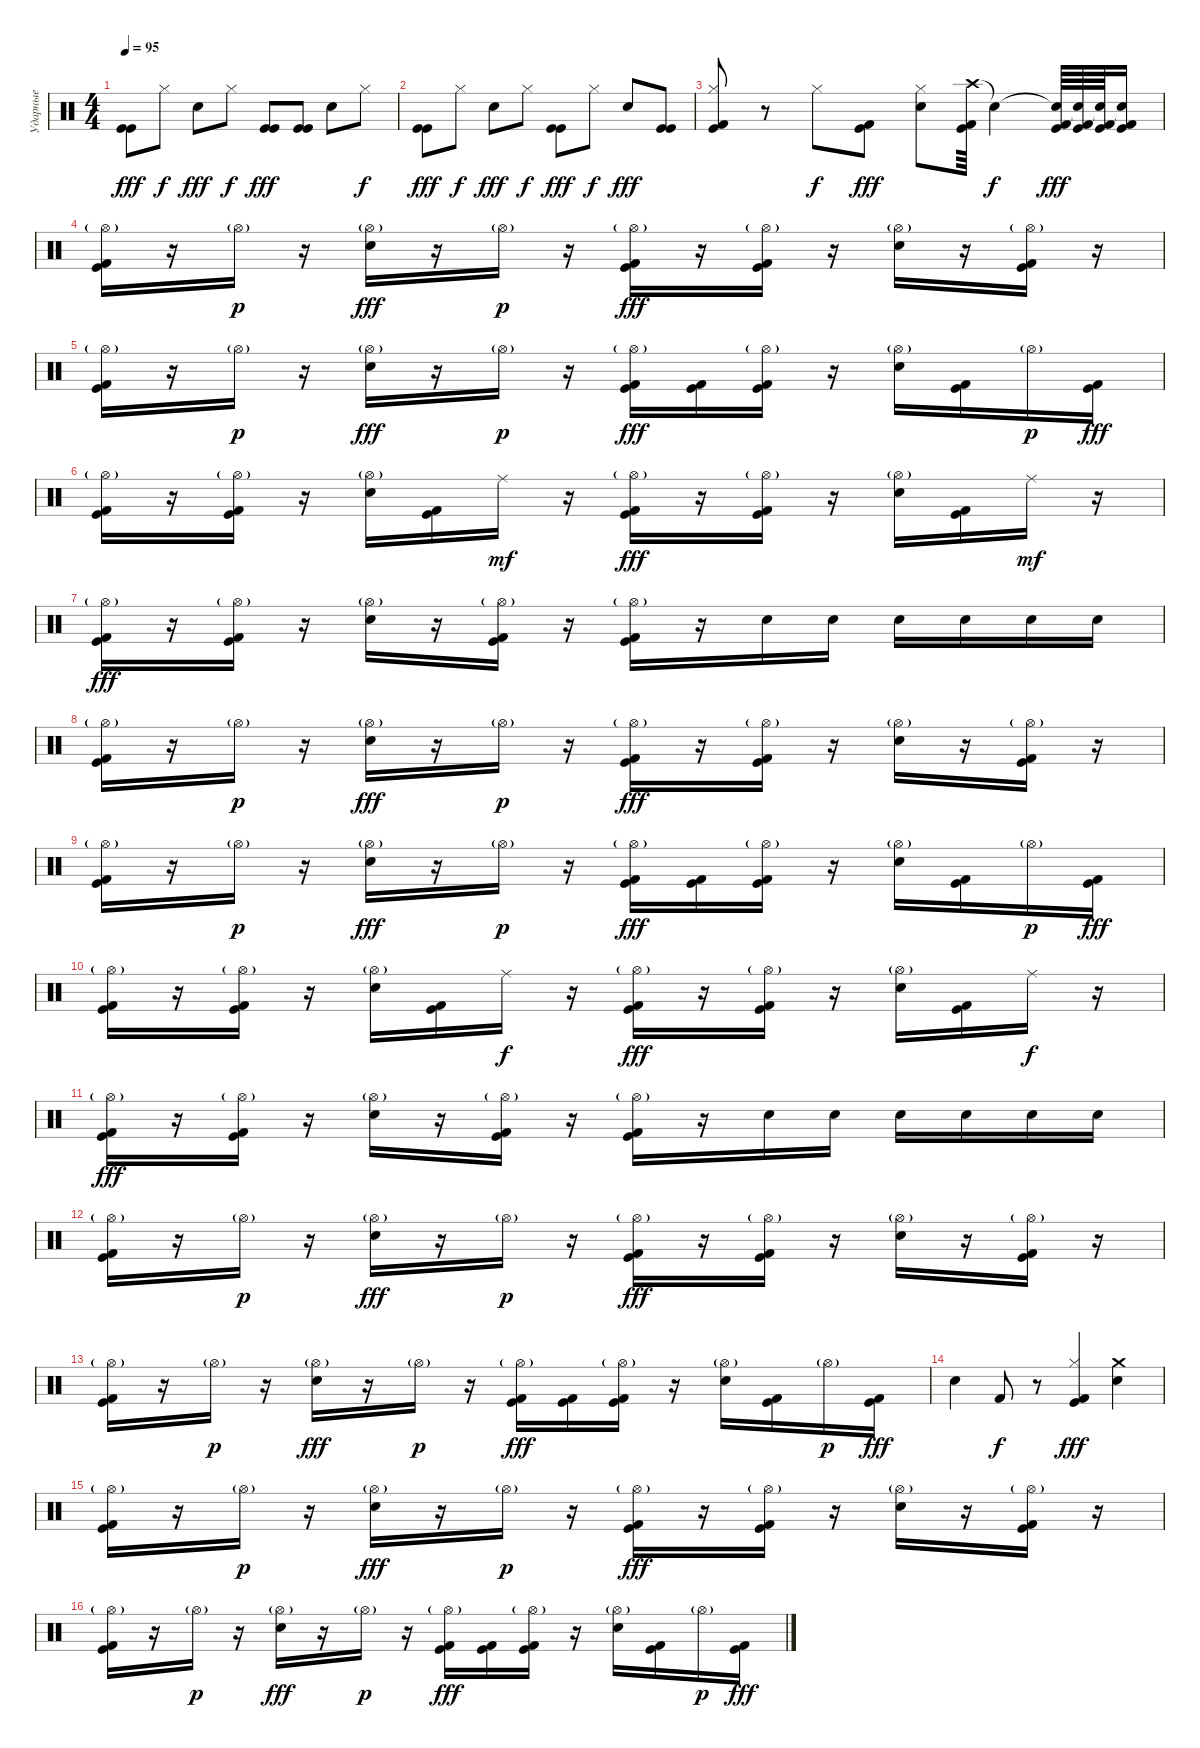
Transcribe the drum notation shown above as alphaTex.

\track ("Ударные" "Ударные") {instrument percussion}
\staff {score}
\articulation defaults
\ts (4 4)
\tempo 95
\clef neutral
\ks c
("Kick (hit)" "Kick (hit)").8{dy fff} "Hi-Hat (closed)".8{dy f} "Snare (hit) 2".8{dy fff} "Hi-Hat (closed)".8{dy f} ("Kick (hit)" "Kick (hit)").8{dy fff} ("Kick (hit)" "Kick (hit)").8 "Snare (hit) 2".8 "Hi-Hat (closed)".8{dy f} |
("Kick (hit)" "Kick (hit)").8{dy fff} "Hi-Hat (closed)".8{dy f} "Snare (hit) 2".8{dy fff} "Hi-Hat (closed)".8{dy f} ("Kick (hit)" "Kick (hit)").8{dy fff} "Hi-Hat (closed)".8{dy f} "Snare (hit) 2".8{dy fff} ("Kick (hit)" "Kick (hit)").8 |
("Hi-Hat (closed)" "Kick (hit)" "Kick (hit) 2").8 r.8 "Hi-Hat (closed)".8{dy f} ("Kick (hit)" "Kick (hit) 2").8{dy fff} ("Hi-Hat (closed)" "Snare (hit) 2").8 ("Crash high (hit)" "Kick (hit)" "Kick (hit) 2").64 "Snare (hit)"{t}.4{dy f} ("Snare (hit)"{t} "Kick (hit)" "Kick (hit) 2").64{dy fff} ("Snare (hit)"{t} "Kick (hit)" "Kick (hit) 2").64 ("Snare (hit)"{t} "Kick (hit)" "Kick (hit) 2").64 ("Snare (hit)"{t} "Kick (hit)" "Kick (hit) 2").16 |
("Hi-Hat (open)"{g} "Kick (hit) 2" "Kick (hit)").16 r.16 "Hi-Hat (open)"{g}.16{dy p} r.16 ("Hi-Hat (open)"{g} "Electric Snare (hit)").16{dy fff} r.16 "Hi-Hat (open)"{g}.16{dy p} r.16 ("Hi-Hat (open)"{g} "Kick (hit) 2" "Kick (hit)").16{dy fff} r.16 ("Hi-Hat (open)"{g} "Kick (hit) 2" "Kick (hit)").16 r.16 ("Hi-Hat (open)"{g} "Electric Snare (hit)").16 r.16 ("Hi-Hat (open)"{g} "Kick (hit) 2" "Kick (hit)").16 r.16 |
("Hi-Hat (open)"{g} "Kick (hit) 2" "Kick (hit)").16 r.16 "Hi-Hat (open)"{g}.16{dy p} r.16 ("Hi-Hat (open)"{g} "Electric Snare (hit)").16{dy fff} r.16 "Hi-Hat (open)"{g}.16{dy p} r.16 ("Hi-Hat (open)"{g} "Kick (hit) 2" "Kick (hit)").16{dy fff} ("Kick (hit) 2" "Kick (hit)").16 ("Hi-Hat (open)"{g} "Kick (hit) 2" "Kick (hit)").16 r.16 ("Hi-Hat (open)"{g} "Electric Snare (hit)").16 ("Kick (hit) 2" "Kick (hit)").16 "Hi-Hat (open)"{g}.16{dy p} ("Kick (hit) 2" "Kick (hit)").16{dy fff} |
("Hi-Hat (open)"{g} "Kick (hit) 2" "Kick (hit)").16 r.16 ("Hi-Hat (open)"{g} "Kick (hit) 2" "Kick (hit)").16 r.16 ("Hi-Hat (open)"{g} "Electric Snare (hit)").16 ("Kick (hit) 2" "Kick (hit)").16 "Ride (middle)".16{dy mf} r.16 ("Hi-Hat (open)"{g} "Kick (hit) 2" "Kick (hit)").16{dy fff} r.16 ("Hi-Hat (open)"{g} "Kick (hit) 2" "Kick (hit)").16 r.16 ("Hi-Hat (open)"{g} "Electric Snare (hit)").16 ("Kick (hit) 2" "Kick (hit)").16 "Ride (middle)".16{dy mf} r.16 |
("Hi-Hat (open)"{g} "Kick (hit) 2" "Kick (hit)").16{dy fff} r.16 ("Hi-Hat (open)"{g} "Kick (hit) 2" "Kick (hit)").16 r.16 ("Hi-Hat (open)"{g} "Electric Snare (hit)").16 r.16 ("Hi-Hat (open)"{g} "Kick (hit) 2" "Kick (hit)").16 r.16 ("Hi-Hat (open)"{g} "Kick (hit) 2" "Kick (hit)").16 r.16 "Electric Snare (hit)".16 "Electric Snare (hit)".16 "Electric Snare (hit)".16 "Electric Snare (hit)".16 "Electric Snare (hit)".16 "Electric Snare (hit)".16 |
("Hi-Hat (open)"{g} "Kick (hit) 2" "Kick (hit)").16 r.16 "Hi-Hat (open)"{g}.16{dy p} r.16 ("Hi-Hat (open)"{g} "Electric Snare (hit)").16{dy fff} r.16 "Hi-Hat (open)"{g}.16{dy p} r.16 ("Hi-Hat (open)"{g} "Kick (hit) 2" "Kick (hit)").16{dy fff} r.16 ("Hi-Hat (open)"{g} "Kick (hit) 2" "Kick (hit)").16 r.16 ("Hi-Hat (open)"{g} "Electric Snare (hit)").16 r.16 ("Hi-Hat (open)"{g} "Kick (hit) 2" "Kick (hit)").16 r.16 |
("Hi-Hat (open)"{g} "Kick (hit) 2" "Kick (hit)").16 r.16 "Hi-Hat (open)"{g}.16{dy p} r.16 ("Hi-Hat (open)"{g} "Electric Snare (hit)").16{dy fff} r.16 "Hi-Hat (open)"{g}.16{dy p} r.16 ("Hi-Hat (open)"{g} "Kick (hit) 2" "Kick (hit)").16{dy fff} ("Kick (hit) 2" "Kick (hit)").16 ("Hi-Hat (open)"{g} "Kick (hit) 2" "Kick (hit)").16 r.16 ("Hi-Hat (open)"{g} "Electric Snare (hit)").16 ("Kick (hit) 2" "Kick (hit)").16 "Hi-Hat (open)"{g}.16{dy p} ("Kick (hit) 2" "Kick (hit)").16{dy fff} |
("Hi-Hat (open)"{g} "Kick (hit) 2" "Kick (hit)").16 r.16 ("Hi-Hat (open)"{g} "Kick (hit) 2" "Kick (hit)").16 r.16 ("Hi-Hat (open)"{g} "Electric Snare (hit)").16 ("Kick (hit) 2" "Kick (hit)").16 "Ride (middle)".16{dy f} r.16 ("Hi-Hat (open)"{g} "Kick (hit) 2" "Kick (hit)").16{dy fff} r.16 ("Hi-Hat (open)"{g} "Kick (hit) 2" "Kick (hit)").16 r.16 ("Hi-Hat (open)"{g} "Electric Snare (hit)").16 ("Kick (hit) 2" "Kick (hit)").16 "Ride (middle)".16{dy f} r.16 |
("Hi-Hat (open)"{g} "Kick (hit) 2" "Kick (hit)").16{dy fff} r.16 ("Hi-Hat (open)"{g} "Kick (hit) 2" "Kick (hit)").16 r.16 ("Hi-Hat (open)"{g} "Electric Snare (hit)").16 r.16 ("Hi-Hat (open)"{g} "Kick (hit) 2" "Kick (hit)").16 r.16 ("Hi-Hat (open)"{g} "Kick (hit) 2" "Kick (hit)").16 r.16 "Electric Snare (hit)".16 "Electric Snare (hit)".16 "Electric Snare (hit)".16 "Electric Snare (hit)".16 "Electric Snare (hit)".16 "Electric Snare (hit)".16 |
("Hi-Hat (open)"{g} "Kick (hit) 2" "Kick (hit)").16 r.16 "Hi-Hat (open)"{g}.16{dy p} r.16 ("Hi-Hat (open)"{g} "Electric Snare (hit)").16{dy fff} r.16 "Hi-Hat (open)"{g}.16{dy p} r.16 ("Hi-Hat (open)"{g} "Kick (hit) 2" "Kick (hit)").16{dy fff} r.16 ("Hi-Hat (open)"{g} "Kick (hit) 2" "Kick (hit)").16 r.16 ("Hi-Hat (open)"{g} "Electric Snare (hit)").16 r.16 ("Hi-Hat (open)"{g} "Kick (hit) 2" "Kick (hit)").16 r.16 |
("Hi-Hat (open)"{g} "Kick (hit) 2" "Kick (hit)").16 r.16 "Hi-Hat (open)"{g}.16{dy p} r.16 ("Hi-Hat (open)"{g} "Electric Snare (hit)").16{dy fff} r.16 "Hi-Hat (open)"{g}.16{dy p} r.16 ("Hi-Hat (open)"{g} "Kick (hit) 2" "Kick (hit)").16{dy fff} ("Kick (hit) 2" "Kick (hit)").16 ("Hi-Hat (open)"{g} "Kick (hit) 2" "Kick (hit)").16 r.16 ("Hi-Hat (open)"{g} "Electric Snare (hit)").16 ("Kick (hit) 2" "Kick (hit)").16 "Hi-Hat (open)"{g}.16{dy p} ("Kick (hit) 2" "Kick (hit)").16{dy fff} |
"Snare (hit) 2".4 "Kick (hit) 2".8{dy f} r.8 ("Kick (hit)" "Hi-Hat (closed)" "Kick (hit) 2").4{dy fff} ("Crash medium (hit)" "Snare (hit) 2").4 |
("Hi-Hat (open)"{g} "Kick (hit) 2" "Kick (hit)").16 r.16 "Hi-Hat (open)"{g}.16{dy p} r.16 ("Hi-Hat (open)"{g} "Electric Snare (hit)").16{dy fff} r.16 "Hi-Hat (open)"{g}.16{dy p} r.16 ("Hi-Hat (open)"{g} "Kick (hit) 2" "Kick (hit)").16{dy fff} r.16 ("Hi-Hat (open)"{g} "Kick (hit) 2" "Kick (hit)").16 r.16 ("Hi-Hat (open)"{g} "Electric Snare (hit)").16 r.16 ("Hi-Hat (open)"{g} "Kick (hit) 2" "Kick (hit)").16 r.16 |
("Hi-Hat (open)"{g} "Kick (hit) 2" "Kick (hit)").16 r.16 "Hi-Hat (open)"{g}.16{dy p} r.16 ("Hi-Hat (open)"{g} "Electric Snare (hit)").16{dy fff} r.16 "Hi-Hat (open)"{g}.16{dy p} r.16 ("Hi-Hat (open)"{g} "Kick (hit) 2" "Kick (hit)").16{dy fff} ("Kick (hit) 2" "Kick (hit)").16 ("Hi-Hat (open)"{g} "Kick (hit) 2" "Kick (hit)").16 r.16 ("Hi-Hat (open)"{g} "Electric Snare (hit)").16 ("Kick (hit) 2" "Kick (hit)").16 "Hi-Hat (open)"{g}.16{dy p} ("Kick (hit) 2" "Kick (hit)").16{dy fff}
